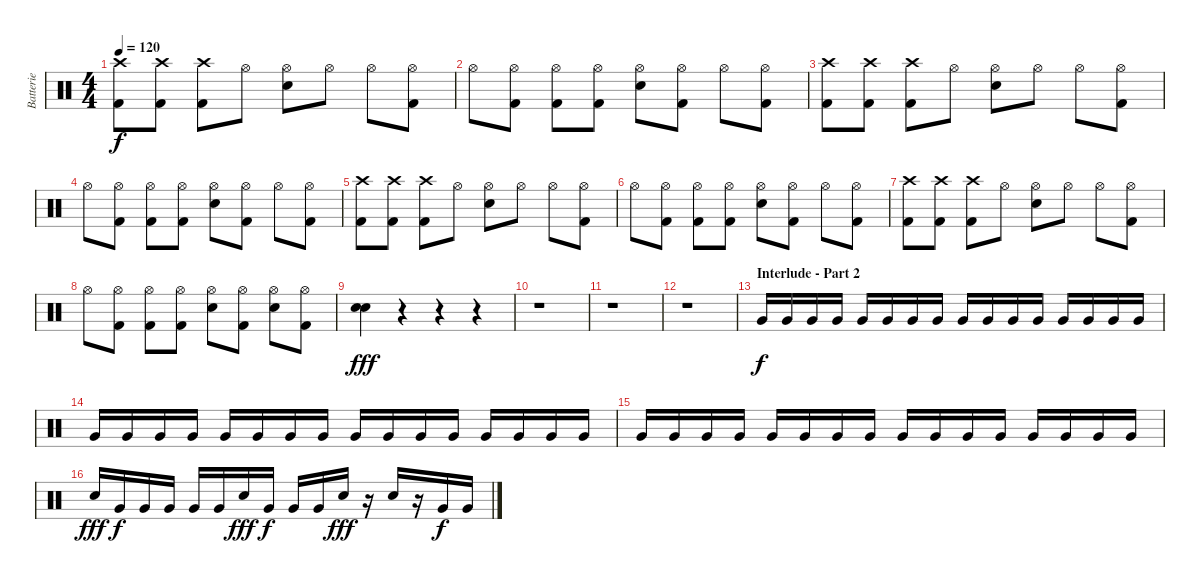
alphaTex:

\track ("Batterie" "Batterie") {instrument percussion}
\staff {score}
\articulation defaults
\ts (4 4)
\tempo 120
\clef neutral
\ks c
("Crash high (hit)" "Kick (hit) 2").8{dy f} ("Crash high (hit)" "Kick (hit) 2").8 ("Crash high (hit)" "Kick (hit) 2").8 "Hi-Hat (open)".8 ("Hi-Hat (open)" "Electric Snare (hit)").8 "Hi-Hat (open)".8 "Hi-Hat (open)".8 ("Hi-Hat (open)" "Kick (hit) 2").8 |
"Hi-Hat (open)".8 ("Hi-Hat (open)" "Kick (hit) 2").8 ("Hi-Hat (open)" "Kick (hit) 2").8 ("Hi-Hat (open)" "Kick (hit) 2").8 ("Hi-Hat (open)" "Electric Snare (hit)").8 ("Hi-Hat (open)" "Kick (hit) 2").8 "Hi-Hat (open)".8 ("Hi-Hat (open)" "Kick (hit) 2").8 |
("Crash high (hit)" "Kick (hit) 2").8 ("Crash high (hit)" "Kick (hit) 2").8 ("Crash high (hit)" "Kick (hit) 2").8 "Hi-Hat (open)".8 ("Hi-Hat (open)" "Electric Snare (hit)").8 "Hi-Hat (open)".8 "Hi-Hat (open)".8 ("Hi-Hat (open)" "Kick (hit) 2").8 |
"Hi-Hat (open)".8 ("Hi-Hat (open)" "Kick (hit) 2").8 ("Hi-Hat (open)" "Kick (hit) 2").8 ("Hi-Hat (open)" "Kick (hit) 2").8 ("Hi-Hat (open)" "Electric Snare (hit)").8 ("Hi-Hat (open)" "Kick (hit) 2").8 "Hi-Hat (open)".8 ("Hi-Hat (open)" "Kick (hit) 2").8 |
("Crash high (hit)" "Kick (hit) 2").8 ("Crash high (hit)" "Kick (hit) 2").8 ("Crash high (hit)" "Kick (hit) 2").8 "Hi-Hat (open)".8 ("Hi-Hat (open)" "Electric Snare (hit)").8 "Hi-Hat (open)".8 "Hi-Hat (open)".8 ("Hi-Hat (open)" "Kick (hit) 2").8 |
"Hi-Hat (open)".8 ("Hi-Hat (open)" "Kick (hit) 2").8 ("Hi-Hat (open)" "Kick (hit) 2").8 ("Hi-Hat (open)" "Kick (hit) 2").8 ("Hi-Hat (open)" "Electric Snare (hit)").8 ("Hi-Hat (open)" "Kick (hit) 2").8 "Hi-Hat (open)".8 ("Hi-Hat (open)" "Kick (hit) 2").8 |
("Crash high (hit)" "Kick (hit) 2").8 ("Crash high (hit)" "Kick (hit) 2").8 ("Crash high (hit)" "Kick (hit) 2").8 "Hi-Hat (open)".8 ("Hi-Hat (open)" "Electric Snare (hit)").8 "Hi-Hat (open)".8 "Hi-Hat (open)".8 ("Hi-Hat (open)" "Kick (hit) 2").8 |
"Hi-Hat (open)".8 ("Hi-Hat (open)" "Kick (hit) 2").8 ("Hi-Hat (open)" "Kick (hit) 2").8 ("Hi-Hat (open)" "Kick (hit) 2").8 ("Hi-Hat (open)" "Electric Snare (hit)").8 ("Hi-Hat (open)" "Kick (hit) 2").8 ("Hi-Hat (open)" "Electric Snare (hit)").8 ("Hi-Hat (open)" "Kick (hit) 2").8 |
("Electric Snare (hit)" "Electric Snare (hit)").4{dy fff} r.4 r.4 r.4 |
r.1 |
r.1 |
r.1 |
\section ("" "Interlude - Part 2")
"Very Low Tom (hit)".16{dy f} "Very Low Tom (hit)".16 "Very Low Tom (hit)".16 "Very Low Tom (hit)".16 "Very Low Tom (hit)".16 "Very Low Tom (hit)".16 "Very Low Tom (hit)".16 "Very Low Tom (hit)".16 "Very Low Tom (hit)".16 "Very Low Tom (hit)".16 "Very Low Tom (hit)".16 "Very Low Tom (hit)".16 "Very Low Tom (hit)".16 "Very Low Tom (hit)".16 "Very Low Tom (hit)".16 "Very Low Tom (hit)".16 |
"Very Low Tom (hit)".16 "Very Low Tom (hit)".16 "Very Low Tom (hit)".16 "Very Low Tom (hit)".16 "Very Low Tom (hit)".16 "Very Low Tom (hit)".16 "Very Low Tom (hit)".16 "Very Low Tom (hit)".16 "Very Low Tom (hit)".16 "Very Low Tom (hit)".16 "Very Low Tom (hit)".16 "Very Low Tom (hit)".16 "Very Low Tom (hit)".16 "Very Low Tom (hit)".16 "Very Low Tom (hit)".16 "Very Low Tom (hit)".16 |
"Very Low Tom (hit)".16 "Very Low Tom (hit)".16 "Very Low Tom (hit)".16 "Very Low Tom (hit)".16 "Very Low Tom (hit)".16 "Very Low Tom (hit)".16 "Very Low Tom (hit)".16 "Very Low Tom (hit)".16 "Very Low Tom (hit)".16 "Very Low Tom (hit)".16 "Very Low Tom (hit)".16 "Very Low Tom (hit)".16 "Very Low Tom (hit)".16 "Very Low Tom (hit)".16 "Very Low Tom (hit)".16 "Very Low Tom (hit)".16 |
"Electric Snare (hit)".16{dy fff} "Very Low Tom (hit)".16{dy f} "Very Low Tom (hit)".16 "Very Low Tom (hit)".16 "Very Low Tom (hit)".16 "Very Low Tom (hit)".16 "Electric Snare (hit)".16{dy fff} "Very Low Tom (hit)".16{dy f} "Very Low Tom (hit)".16 "Very Low Tom (hit)".16 "Electric Snare (hit)".16{dy fff} r.16 "Electric Snare (hit)".16 r.16 "Very Low Tom (hit)".16{dy f} "Very Low Tom (hit)".16
